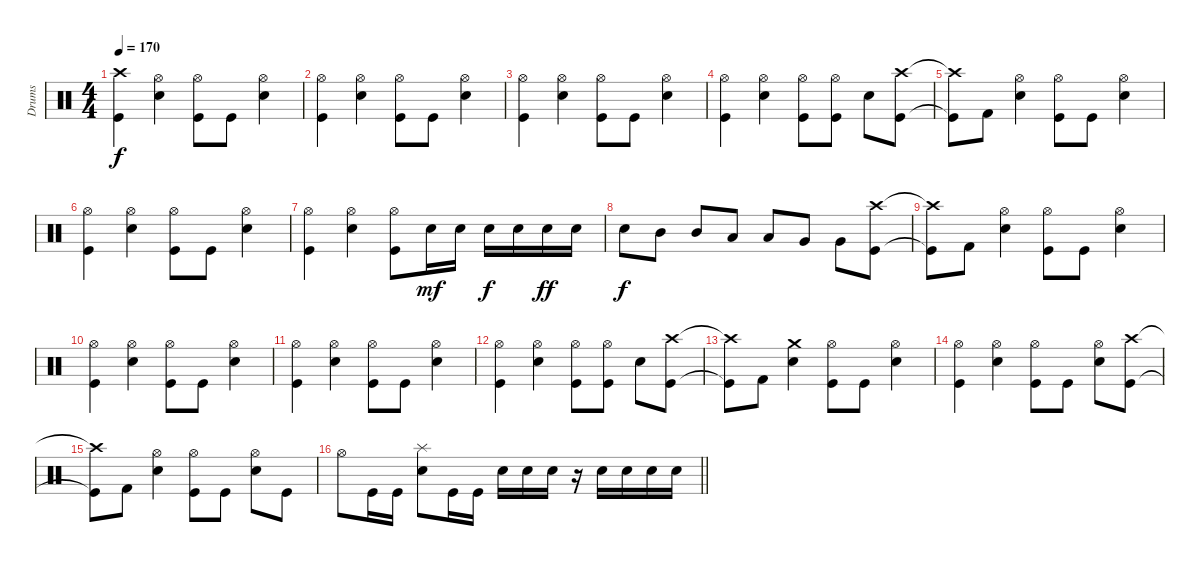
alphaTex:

\track ("Drums" "Drums") {instrument percussion}
\staff {score}
\articulation defaults
\ts (4 4)
\tempo 170
\clef neutral
\ks c
("Crash high (hit)" "Kick (hit)").4{dy f} ("Hi-Hat (open)" "Electric Snare (hit)").4 ("Hi-Hat (open)" "Kick (hit)").8 "Kick (hit)".8 ("Hi-Hat (open)" "Electric Snare (hit)").4 |
("Hi-Hat (open)" "Kick (hit)").4 ("Hi-Hat (open)" "Electric Snare (hit)").4 ("Hi-Hat (open)" "Kick (hit)").8 "Kick (hit)".8 ("Hi-Hat (open)" "Electric Snare (hit)").4 |
("Hi-Hat (open)" "Kick (hit)").4 ("Hi-Hat (open)" "Electric Snare (hit)").4 ("Hi-Hat (open)" "Kick (hit)").8 "Kick (hit)".8 ("Hi-Hat (open)" "Electric Snare (hit)").4 |
("Hi-Hat (open)" "Kick (hit)").4 ("Hi-Hat (open)" "Electric Snare (hit)").4 ("Hi-Hat (open)" "Kick (hit)").8 ("Hi-Hat (open)" "Kick (hit)").8 "Electric Snare (hit)".8 ("Crash high (hit)" "Kick (hit)").8 |
("Crash high (hit)"{t} "Kick (hit)"{t}).8 "Kick (hit) 2".8 ("Hi-Hat (open)" "Electric Snare (hit)").4 ("Hi-Hat (open)" "Kick (hit)").8 "Kick (hit)".8 ("Hi-Hat (open)" "Electric Snare (hit)").4 |
("Hi-Hat (open)" "Kick (hit)").4 ("Hi-Hat (open)" "Electric Snare (hit)").4 ("Hi-Hat (open)" "Kick (hit)").8 "Kick (hit)".8 ("Hi-Hat (open)" "Electric Snare (hit)").4 |
("Hi-Hat (open)" "Kick (hit)").4 ("Hi-Hat (open)" "Electric Snare (hit)").4 ("Hi-Hat (open)" "Kick (hit)").8 "Electric Snare (hit)".16{dy mf} "Electric Snare (hit)".16 "Electric Snare (hit)".16{dy f} "Electric Snare (hit)".16 "Electric Snare (hit)".16{dy ff} "Electric Snare (hit)".16 |
"Electric Snare (hit)".8{dy f} "Mid Tom (hit)".8 "Mid Tom (hit)".8 "Low Tom (hit)".8 "Low Tom (hit)".8 "Very Low Tom (hit)".8 "Very Low Tom (hit)".8 ("Crash high (hit)" "Kick (hit)").8 |
("Crash high (hit)"{t} "Kick (hit)"{t}).8 "Kick (hit) 2".8 ("Hi-Hat (open)" "Electric Snare (hit)").4 ("Hi-Hat (open)" "Kick (hit)").8 "Kick (hit)".8 ("Hi-Hat (open)" "Electric Snare (hit)").4 |
("Hi-Hat (open)" "Kick (hit)").4 ("Hi-Hat (open)" "Electric Snare (hit)").4 ("Hi-Hat (open)" "Kick (hit)").8 "Kick (hit)".8 ("Hi-Hat (open)" "Electric Snare (hit)").4 |
("Hi-Hat (open)" "Kick (hit)").4 ("Hi-Hat (open)" "Electric Snare (hit)").4 ("Hi-Hat (open)" "Kick (hit)").8 "Kick (hit)".8 ("Hi-Hat (open)" "Electric Snare (hit)").4 |
("Hi-Hat (open)" "Kick (hit)").4 ("Hi-Hat (open)" "Electric Snare (hit)").4 ("Hi-Hat (open)" "Kick (hit)").8 ("Hi-Hat (open)" "Kick (hit)").8 "Electric Snare (hit)".8 ("Crash high (hit)" "Kick (hit)").8 |
("Crash high (hit)"{t} "Kick (hit)"{t}).8 "Kick (hit) 2".8 ("Crash medium (hit)" "Electric Snare (hit)").4 ("Hi-Hat (open)" "Kick (hit)").8 "Kick (hit)".8 ("Hi-Hat (open)" "Electric Snare (hit)").4 |
("Hi-Hat (open)" "Kick (hit)").4 ("Hi-Hat (open)" "Electric Snare (hit)").4 ("Hi-Hat (open)" "Kick (hit)").8 "Kick (hit)".8 ("Hi-Hat (open)" "Electric Snare (hit)").8 ("Crash high (hit)" "Kick (hit)").8 |
("Crash high (hit)"{t} "Kick (hit)"{t}).8 "Kick (hit) 2".8 ("Hi-Hat (open)" "Electric Snare (hit)").4 ("Hi-Hat (open)" "Kick (hit)").8 "Kick (hit)".8 ("Hi-Hat (open)" "Electric Snare (hit)").8 "Kick (hit)".8 |
\barLineRight lightlight "Hi-Hat (open)".8 "Kick (hit)".16 "Kick (hit)".16
("Splash (hit)" "Electric Snare (hit)").8 "Kick (hit)".16 "Kick (hit)".16 "Electric Snare (hit)".16 "Electric Snare (hit)".16 "Electric Snare (hit)".16 r.16 "Electric Snare (hit)".16 "Electric Snare (hit)".16 "Electric Snare (hit)".16 "Electric Snare (hit)".16
